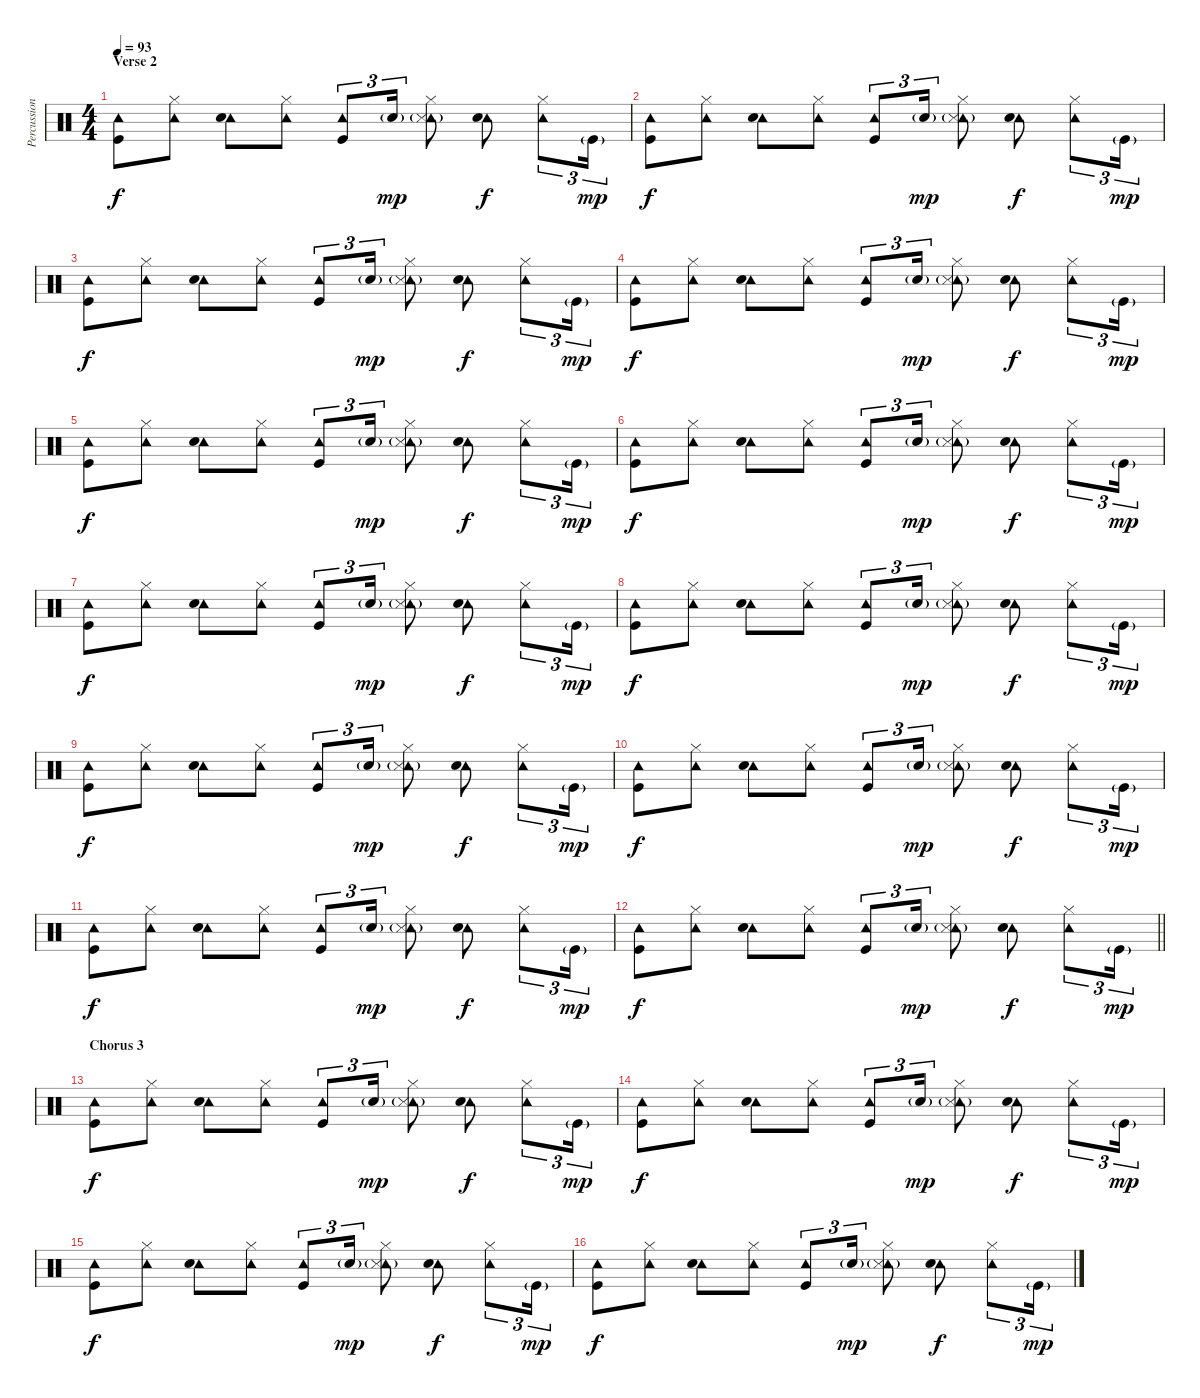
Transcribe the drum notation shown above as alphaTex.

\track ("Percussion" "Percussion") {instrument percussion}
\staff {score}
\articulation defaults
\ts (4 4)
\section ("" "Verse 2")
\tempo 93
\clef neutral
\ks c
("Tambourine (hit)" "Kick (hit)").8{dy f} ("Tambourine (hit)" "Hi-Hat (closed)").8 ("Tambourine (hit)" "Electric Snare (hit)").8 ("Tambourine (hit)" "Hi-Hat (closed)").8 ("Tambourine (hit)" "Kick (hit)").8{tu (3 2)} "Electric Snare (hit)"{g}.16{tu (3 2) dy mp} ("Tambourine (hit)" "Hi-Hat (closed)" "Snare (side stick) 3"{g}).8 ("Tambourine (hit)" "Electric Snare (hit)").8{dy f} ("Tambourine (hit)" "Hi-Hat (closed)").8{tu (3 2)} "Kick (hit)"{g}.16{tu (3 2) dy mp} |
("Tambourine (hit)" "Kick (hit)").8{dy f} ("Tambourine (hit)" "Hi-Hat (closed)").8 ("Tambourine (hit)" "Electric Snare (hit)").8 ("Tambourine (hit)" "Hi-Hat (closed)").8 ("Tambourine (hit)" "Kick (hit)").8{tu (3 2)} "Electric Snare (hit)"{g}.16{tu (3 2) dy mp} ("Tambourine (hit)" "Hi-Hat (closed)" "Snare (side stick) 3"{g}).8 ("Tambourine (hit)" "Electric Snare (hit)").8{dy f} ("Tambourine (hit)" "Hi-Hat (closed)").8{tu (3 2)} "Kick (hit)"{g}.16{tu (3 2) dy mp} |
("Tambourine (hit)" "Kick (hit)").8{dy f} ("Tambourine (hit)" "Hi-Hat (closed)").8 ("Tambourine (hit)" "Electric Snare (hit)").8 ("Tambourine (hit)" "Hi-Hat (closed)").8 ("Tambourine (hit)" "Kick (hit)").8{tu (3 2)} "Electric Snare (hit)"{g}.16{tu (3 2) dy mp} ("Tambourine (hit)" "Hi-Hat (closed)" "Snare (side stick) 3"{g}).8 ("Tambourine (hit)" "Electric Snare (hit)").8{dy f} ("Tambourine (hit)" "Hi-Hat (closed)").8{tu (3 2)} "Kick (hit)"{g}.16{tu (3 2) dy mp} |
("Tambourine (hit)" "Kick (hit)").8{dy f} ("Tambourine (hit)" "Hi-Hat (closed)").8 ("Tambourine (hit)" "Electric Snare (hit)").8 ("Tambourine (hit)" "Hi-Hat (closed)").8 ("Tambourine (hit)" "Kick (hit)").8{tu (3 2)} "Electric Snare (hit)"{g}.16{tu (3 2) dy mp} ("Tambourine (hit)" "Hi-Hat (closed)" "Snare (side stick) 3"{g}).8 ("Tambourine (hit)" "Electric Snare (hit)").8{dy f} ("Tambourine (hit)" "Hi-Hat (closed)").8{tu (3 2)} "Kick (hit)"{g}.16{tu (3 2) dy mp} |
("Tambourine (hit)" "Kick (hit)").8{dy f} ("Tambourine (hit)" "Hi-Hat (closed)").8 ("Tambourine (hit)" "Electric Snare (hit)").8 ("Tambourine (hit)" "Hi-Hat (closed)").8 ("Tambourine (hit)" "Kick (hit)").8{tu (3 2)} "Electric Snare (hit)"{g}.16{tu (3 2) dy mp} ("Tambourine (hit)" "Hi-Hat (closed)" "Snare (side stick) 3"{g}).8 ("Tambourine (hit)" "Electric Snare (hit)").8{dy f} ("Tambourine (hit)" "Hi-Hat (closed)").8{tu (3 2)} "Kick (hit)"{g}.16{tu (3 2) dy mp} |
("Tambourine (hit)" "Kick (hit)").8{dy f} ("Tambourine (hit)" "Hi-Hat (closed)").8 ("Tambourine (hit)" "Electric Snare (hit)").8 ("Tambourine (hit)" "Hi-Hat (closed)").8 ("Tambourine (hit)" "Kick (hit)").8{tu (3 2)} "Electric Snare (hit)"{g}.16{tu (3 2) dy mp} ("Tambourine (hit)" "Hi-Hat (closed)" "Snare (side stick) 3"{g}).8 ("Tambourine (hit)" "Electric Snare (hit)").8{dy f} ("Tambourine (hit)" "Hi-Hat (closed)").8{tu (3 2)} "Kick (hit)"{g}.16{tu (3 2) dy mp} |
("Tambourine (hit)" "Kick (hit)").8{dy f} ("Tambourine (hit)" "Hi-Hat (closed)").8 ("Tambourine (hit)" "Electric Snare (hit)").8 ("Tambourine (hit)" "Hi-Hat (closed)").8 ("Tambourine (hit)" "Kick (hit)").8{tu (3 2)} "Electric Snare (hit)"{g}.16{tu (3 2) dy mp} ("Tambourine (hit)" "Hi-Hat (closed)" "Snare (side stick) 3"{g}).8 ("Tambourine (hit)" "Electric Snare (hit)").8{dy f} ("Tambourine (hit)" "Hi-Hat (closed)").8{tu (3 2)} "Kick (hit)"{g}.16{tu (3 2) dy mp} |
("Tambourine (hit)" "Kick (hit)").8{dy f} ("Tambourine (hit)" "Hi-Hat (closed)").8 ("Tambourine (hit)" "Electric Snare (hit)").8 ("Tambourine (hit)" "Hi-Hat (closed)").8 ("Tambourine (hit)" "Kick (hit)").8{tu (3 2)} "Electric Snare (hit)"{g}.16{tu (3 2) dy mp} ("Tambourine (hit)" "Hi-Hat (closed)" "Snare (side stick) 3"{g}).8 ("Tambourine (hit)" "Electric Snare (hit)").8{dy f} ("Tambourine (hit)" "Hi-Hat (closed)").8{tu (3 2)} "Kick (hit)"{g}.16{tu (3 2) dy mp} |
("Tambourine (hit)" "Kick (hit)").8{dy f} ("Tambourine (hit)" "Hi-Hat (closed)").8 ("Tambourine (hit)" "Electric Snare (hit)").8 ("Tambourine (hit)" "Hi-Hat (closed)").8 ("Tambourine (hit)" "Kick (hit)").8{tu (3 2)} "Electric Snare (hit)"{g}.16{tu (3 2) dy mp} ("Tambourine (hit)" "Hi-Hat (closed)" "Snare (side stick) 3"{g}).8 ("Tambourine (hit)" "Electric Snare (hit)").8{dy f} ("Tambourine (hit)" "Hi-Hat (closed)").8{tu (3 2)} "Kick (hit)"{g}.16{tu (3 2) dy mp} |
("Tambourine (hit)" "Kick (hit)").8{dy f} ("Tambourine (hit)" "Hi-Hat (closed)").8 ("Tambourine (hit)" "Electric Snare (hit)").8 ("Tambourine (hit)" "Hi-Hat (closed)").8 ("Tambourine (hit)" "Kick (hit)").8{tu (3 2)} "Electric Snare (hit)"{g}.16{tu (3 2) dy mp} ("Tambourine (hit)" "Hi-Hat (closed)" "Snare (side stick) 3"{g}).8 ("Tambourine (hit)" "Electric Snare (hit)").8{dy f} ("Tambourine (hit)" "Hi-Hat (closed)").8{tu (3 2)} "Kick (hit)"{g}.16{tu (3 2) dy mp} |
("Tambourine (hit)" "Kick (hit)").8{dy f} ("Tambourine (hit)" "Hi-Hat (closed)").8 ("Tambourine (hit)" "Electric Snare (hit)").8 ("Tambourine (hit)" "Hi-Hat (closed)").8 ("Tambourine (hit)" "Kick (hit)").8{tu (3 2)} "Electric Snare (hit)"{g}.16{tu (3 2) dy mp} ("Tambourine (hit)" "Hi-Hat (closed)" "Snare (side stick) 3"{g}).8 ("Tambourine (hit)" "Electric Snare (hit)").8{dy f} ("Tambourine (hit)" "Hi-Hat (closed)").8{tu (3 2)} "Kick (hit)"{g}.16{tu (3 2) dy mp} |
\barLineRight lightlight
("Tambourine (hit)" "Kick (hit)").8{dy f} ("Tambourine (hit)" "Hi-Hat (closed)").8 ("Tambourine (hit)" "Electric Snare (hit)").8 ("Tambourine (hit)" "Hi-Hat (closed)").8 ("Tambourine (hit)" "Kick (hit)").8{tu (3 2)} "Electric Snare (hit)"{g}.16{tu (3 2) dy mp} ("Tambourine (hit)" "Hi-Hat (closed)" "Snare (side stick) 3"{g}).8 ("Tambourine (hit)" "Electric Snare (hit)").8{dy f} ("Tambourine (hit)" "Hi-Hat (closed)").8{tu (3 2)} "Kick (hit)"{g}.16{tu (3 2) dy mp} |
\section ("" "Chorus 3")
("Tambourine (hit)" "Kick (hit)").8{dy f} ("Tambourine (hit)" "Hi-Hat (closed)").8 ("Tambourine (hit)" "Electric Snare (hit)").8 ("Tambourine (hit)" "Hi-Hat (closed)").8 ("Tambourine (hit)" "Kick (hit)").8{tu (3 2)} "Electric Snare (hit)"{g}.16{tu (3 2) dy mp} ("Tambourine (hit)" "Hi-Hat (closed)" "Snare (side stick) 3"{g}).8 ("Tambourine (hit)" "Electric Snare (hit)").8{dy f} ("Tambourine (hit)" "Hi-Hat (closed)").8{tu (3 2)} "Kick (hit)"{g}.16{tu (3 2) dy mp} |
("Tambourine (hit)" "Kick (hit)").8{dy f} ("Tambourine (hit)" "Hi-Hat (closed)").8 ("Tambourine (hit)" "Electric Snare (hit)").8 ("Tambourine (hit)" "Hi-Hat (closed)").8 ("Tambourine (hit)" "Kick (hit)").8{tu (3 2)} "Electric Snare (hit)"{g}.16{tu (3 2) dy mp} ("Tambourine (hit)" "Hi-Hat (closed)" "Snare (side stick) 3"{g}).8 ("Tambourine (hit)" "Electric Snare (hit)").8{dy f} ("Tambourine (hit)" "Hi-Hat (closed)").8{tu (3 2)} "Kick (hit)"{g}.16{tu (3 2) dy mp} |
("Tambourine (hit)" "Kick (hit)").8{dy f} ("Tambourine (hit)" "Hi-Hat (closed)").8 ("Tambourine (hit)" "Electric Snare (hit)").8 ("Tambourine (hit)" "Hi-Hat (closed)").8 ("Tambourine (hit)" "Kick (hit)").8{tu (3 2)} "Electric Snare (hit)"{g}.16{tu (3 2) dy mp} ("Tambourine (hit)" "Hi-Hat (closed)" "Snare (side stick) 3"{g}).8 ("Tambourine (hit)" "Electric Snare (hit)").8{dy f} ("Tambourine (hit)" "Hi-Hat (closed)").8{tu (3 2)} "Kick (hit)"{g}.16{tu (3 2) dy mp} |
("Tambourine (hit)" "Kick (hit)").8{dy f} ("Tambourine (hit)" "Hi-Hat (closed)").8 ("Tambourine (hit)" "Electric Snare (hit)").8 ("Tambourine (hit)" "Hi-Hat (closed)").8 ("Tambourine (hit)" "Kick (hit)").8{tu (3 2)} "Electric Snare (hit)"{g}.16{tu (3 2) dy mp} ("Tambourine (hit)" "Hi-Hat (closed)" "Snare (side stick) 3"{g}).8 ("Tambourine (hit)" "Electric Snare (hit)").8{dy f} ("Tambourine (hit)" "Hi-Hat (closed)").8{tu (3 2)} "Kick (hit)"{g}.16{tu (3 2) dy mp}
